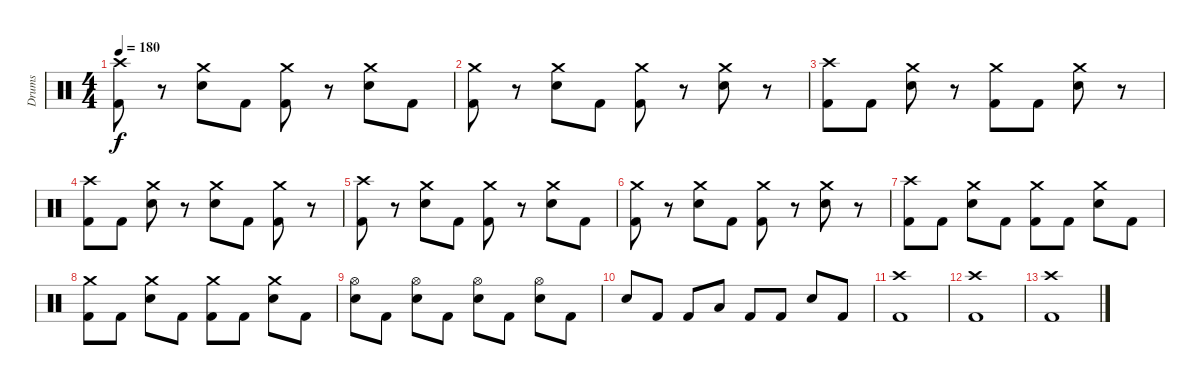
\track ("Drums" "Drums") {instrument percussion}
\staff {score}
\articulation defaults
\ts (4 4)
\tempo 180
\clef neutral
\ks c
("Crash high (hit)" "Kick (hit) 2").8{dy f} r.8 ("Crash medium (hit)" "Electric Snare (hit)").8 "Kick (hit) 2".8 ("Crash medium (hit)" "Kick (hit) 2").8 r.8 ("Crash medium (hit)" "Electric Snare (hit)").8 "Kick (hit) 2".8 |
("Crash medium (hit)" "Kick (hit) 2").8 r.8 ("Crash medium (hit)" "Electric Snare (hit)").8 "Kick (hit) 2".8 ("Crash medium (hit)" "Kick (hit) 2").8 r.8 ("Crash medium (hit)" "Electric Snare (hit)").8 r.8 |
("Crash high (hit)" "Kick (hit) 2").8 "Kick (hit) 2".8 ("Crash medium (hit)" "Electric Snare (hit)").8 r.8 ("Crash medium (hit)" "Kick (hit) 2").8 "Kick (hit) 2".8 ("Crash medium (hit)" "Electric Snare (hit)").8 r.8 |
("Crash high (hit)" "Kick (hit) 2").8 "Kick (hit) 2".8 ("Crash medium (hit)" "Electric Snare (hit)").8 r.8 ("Crash medium (hit)" "Electric Snare (hit)").8 "Kick (hit) 2".8 ("Crash medium (hit)" "Kick (hit) 2").8 r.8 |
("Crash high (hit)" "Kick (hit) 2").8 r.8 ("Crash medium (hit)" "Electric Snare (hit)").8 "Kick (hit) 2".8 ("Crash medium (hit)" "Kick (hit) 2").8 r.8 ("Crash medium (hit)" "Electric Snare (hit)").8 "Kick (hit) 2".8 |
("Crash medium (hit)" "Kick (hit) 2").8 r.8 ("Crash medium (hit)" "Electric Snare (hit)").8 "Kick (hit) 2".8 ("Crash medium (hit)" "Kick (hit) 2").8 r.8 ("Crash medium (hit)" "Electric Snare (hit)").8 r.8 |
("Crash high (hit)" "Kick (hit) 2").8 "Kick (hit) 2".8 ("Crash medium (hit)" "Electric Snare (hit)").8 "Kick (hit) 2".8 ("Crash medium (hit)" "Kick (hit) 2").8 "Kick (hit) 2".8 ("Crash medium (hit)" "Electric Snare (hit)").8 "Kick (hit) 2".8 |
("Crash medium (hit)" "Kick (hit) 2").8 "Kick (hit) 2".8 ("Crash medium (hit)" "Electric Snare (hit)").8 "Kick (hit) 2".8 ("Crash medium (hit)" "Kick (hit) 2").8 "Kick (hit) 2".8 ("Crash medium (hit)" "Electric Snare (hit)").8 "Kick (hit) 2".8 |
("Hi-Hat (open)" "Electric Snare (hit)").8 "Kick (hit) 2".8 ("Hi-Hat (open)" "Electric Snare (hit)").8 "Kick (hit) 2".8 ("Hi-Hat (open)" "Electric Snare (hit)").8 "Kick (hit) 2".8 ("Hi-Hat (open)" "Electric Snare (hit)").8 "Kick (hit) 2".8 |
"Electric Snare (hit)".8 "Kick (hit) 2".8 "Kick (hit) 2".8 "Low Tom (hit)".8 "Kick (hit) 2".8 "Kick (hit) 2".8 "Electric Snare (hit)".8 "Kick (hit) 2".8 |
("Crash high (hit)" "Kick (hit) 2").1 |
("Crash high (hit)" "Kick (hit) 2").1 |
("Crash high (hit)" "Kick (hit) 2").1
